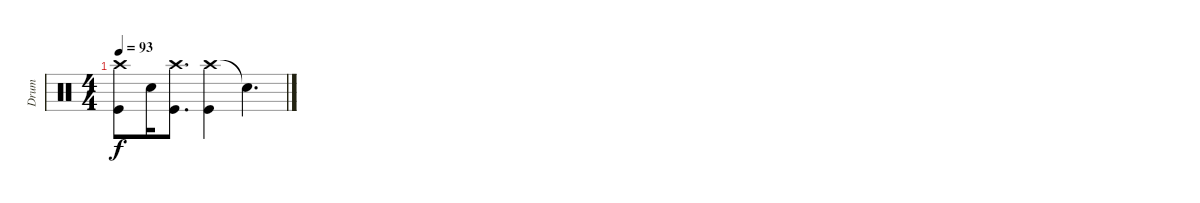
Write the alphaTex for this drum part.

\track ("Drum" "Drum") {instrument percussion}
\staff {score}
\articulation defaults
\ts (4 4)
\tempo 93
\clef neutral
\ks c
("Crash high (hit)" "Kick (hit)").8{dy f balance 8} "Snare (hit) 2".16 ("Crash high (hit)" "Kick (hit)").8{d} ("Crash high (hit)" "Kick (hit)").4 "Snare (hit)"{t}.4{d}
